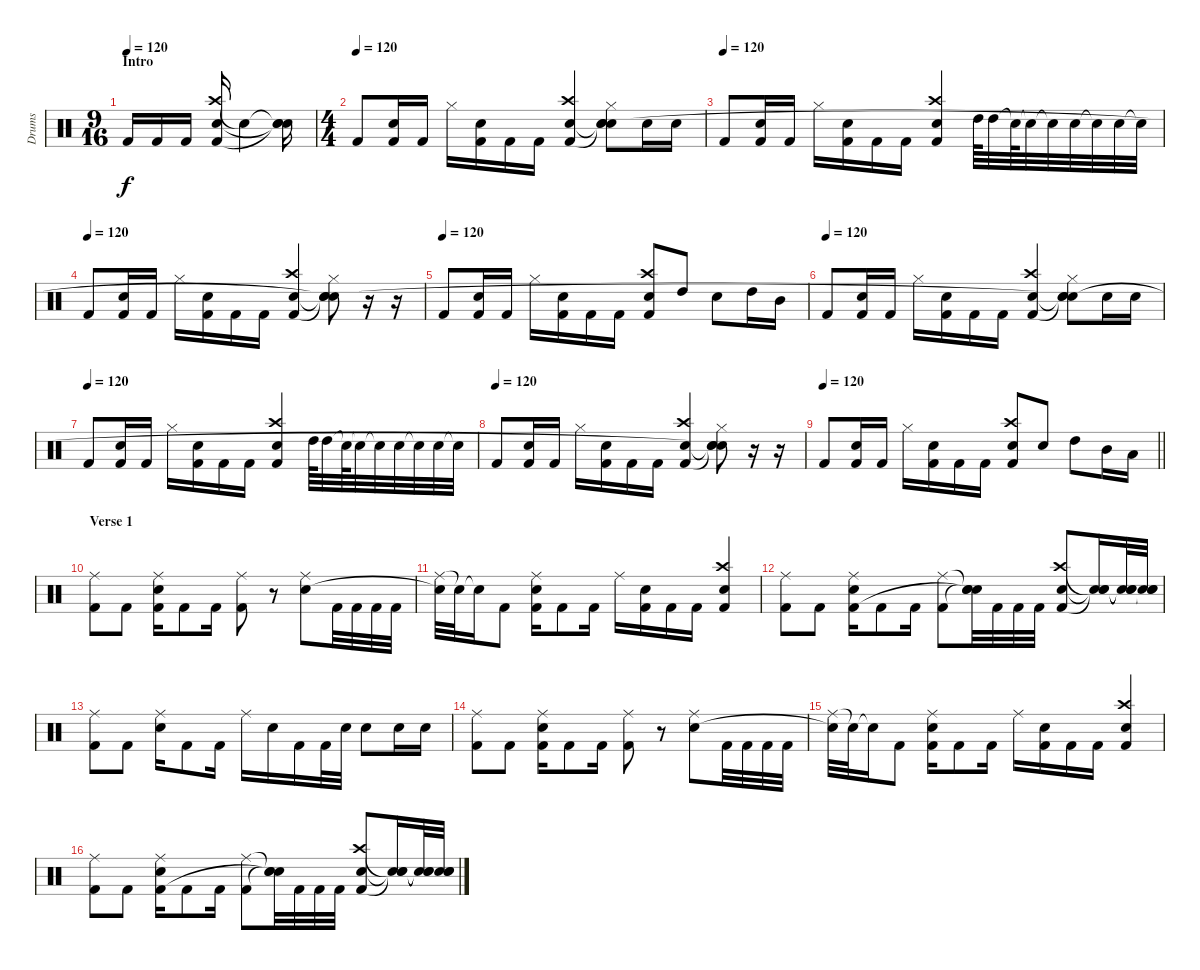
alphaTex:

\track ("Drums" "Drums") {instrument percussion}
\staff {score}
\articulation defaults
\ts (9 16)
\section ("" "Intro")
\tempo 120
\tempo 170
\tempo 120
\clef neutral
\ks c "Kick (hit) 2".16{dy f} "Kick (hit) 2".16 "Kick (hit) 2".16
("Crash high (hit)" "Electric Snare (hit)" "Kick (hit) 2").16 "Snare (hit)"{t}.4 ("Snare (hit)"{t} "Snare (hit)"{t} "Snare (hit)"{t}).16 |
\ts (4 4)
\tempo (120)
"Kick (hit) 2".8 ("Electric Snare (hit)" "Kick (hit) 2").16 "Kick (hit) 2".16 "Hi-Hat (closed)".16 ("Electric Snare (hit)" "Kick (hit) 2").16 "Kick (hit) 2".16 "Kick (hit) 2".16 ("Crash high (hit)" "Electric Snare (hit)" "Kick (hit) 2").4 ("Hi-Hat (closed)" "Snare (hit)"{t} "Snare (hit)"{t} "Snare (hit)").8 "Electric Snare (hit)".16 "Electric Snare (hit)".16 |
\tempo (120)
"Kick (hit) 2".8 ("Electric Snare (hit)" "Kick (hit) 2").16 "Kick (hit) 2".16 "Hi-Hat (closed)".16 ("Electric Snare (hit)" "Kick (hit) 2").16 "Kick (hit) 2".16 "Kick (hit) 2".16 ("Crash high (hit)" "Electric Snare (hit)" "Kick (hit) 2").4 "High Tom (hit)".64 "High Tom (hit)".32 "Snare (hit)"{t}.64 "Snare (hit)"{t}.32 "Snare (hit)"{t}.32 "Electric Snare (hit)".32 "Snare (hit)"{t}.32 "Electric Snare (hit)".32 "Snare (hit)"{t}.32 |
\tempo (120)
"Kick (hit) 2".8 ("Electric Snare (hit)" "Kick (hit) 2").16 "Kick (hit) 2".16 "Hi-Hat (closed)".16 ("Electric Snare (hit)" "Kick (hit) 2").16 "Kick (hit) 2".16 "Kick (hit) 2".16 ("Crash high (hit)" "Electric Snare (hit)" "Kick (hit) 2").4 ("Hi-Hat (closed)" "Snare (hit)"{t} "Snare (hit)"{t} "Snare (hit)"{t}).8 r.16 r.16 |
\tempo (120)
"Kick (hit) 2".8 ("Electric Snare (hit)" "Kick (hit) 2").16 "Kick (hit) 2".16 "Hi-Hat (closed)".16 ("Electric Snare (hit)" "Kick (hit) 2").16 "Kick (hit) 2".16 "Kick (hit) 2".16 ("Crash high (hit)" "Electric Snare (hit)" "Kick (hit) 2").8 "High Tom (hit)".8 "Electric Snare (hit)".8 "High Tom (hit)".16 "Mid Tom (hit)".16 |
\tempo (120)
"Kick (hit) 2".8 ("Electric Snare (hit)" "Kick (hit) 2").16 "Kick (hit) 2".16 "Hi-Hat (closed)".16 ("Electric Snare (hit)" "Kick (hit) 2").16 "Kick (hit) 2".16 "Kick (hit) 2".16 ("Crash high (hit)" "Electric Snare (hit)" "Kick (hit) 2").4 ("Hi-Hat (closed)" "Snare (hit)"{t} "Snare (hit)"{t} "Snare (hit)"{t}).8 "Electric Snare (hit)".16 "Electric Snare (hit)".16 |
\tempo (120)
"Kick (hit) 2".8 ("Electric Snare (hit)" "Kick (hit) 2").16 "Kick (hit) 2".16 "Hi-Hat (closed)".16 ("Electric Snare (hit)" "Kick (hit) 2").16 "Kick (hit) 2".16 "Kick (hit) 2".16 ("Crash high (hit)" "Electric Snare (hit)" "Kick (hit) 2").4 "High Tom (hit)".64 "High Tom (hit)".32 "Snare (hit)"{t}.64 "Snare (hit)"{t}.32 "Snare (hit)"{t}.32 "Electric Snare (hit)".32 "Snare (hit)"{t}.32 "Electric Snare (hit)".32 "Snare (hit)"{t}.32 |
\tempo (120)
"Kick (hit) 2".8 ("Electric Snare (hit)" "Kick (hit) 2").16 "Kick (hit) 2".16 "Hi-Hat (closed)".16 ("Electric Snare (hit)" "Kick (hit) 2").16 "Kick (hit) 2".16 "Kick (hit) 2".16 ("Crash high (hit)" "Electric Snare (hit)" "Kick (hit) 2").4 ("Hi-Hat (closed)" "Snare (hit)"{t} "Snare (hit)"{t} "Snare (hit)"{t}).8 r.16 r.16 |
\tempo 120
\barLineRight lightlight "Kick (hit) 2".8
("Electric Snare (hit)" "Kick (hit) 2").16 "Kick (hit) 2".16 "Hi-Hat (closed)".16 ("Electric Snare (hit)" "Kick (hit) 2").16 "Kick (hit) 2".16 "Kick (hit) 2".16 ("Crash high (hit)" "Electric Snare (hit)" "Kick (hit) 2").8 "Electric Snare (hit)".8 "High Tom (hit)".8 "Mid Tom (hit)".16 "Low Tom (hit)".16 |
\section ("" "Verse 1")
("Ride (middle)" "Kick (hit) 2").8 "Kick (hit) 2".8 ("Ride (middle)" "Electric Snare (hit)" "Kick (hit) 2").16 "Kick (hit) 2".8 "Kick (hit) 2".16 ("Ride (middle)" "Kick (hit) 2").8 r.8 ("Ride (middle)" "Electric Snare (hit)").8 "Kick (hit) 2".32 "Kick (hit) 2".32 "Kick (hit) 2".32 "Kick (hit) 2".32 |
("Ride (middle)" "Snare (hit)"{t}).32 "Snare (hit)"{t}.32 "Snare (hit)"{t}.16 "Kick (hit) 2".8 ("Ride (middle)" "Electric Snare (hit)" "Kick (hit) 2").16 "Kick (hit) 2".8 "Kick (hit) 2".16 "Ride (middle)".16 ("Electric Snare (hit)" "Kick (hit) 2").16 "Kick (hit) 2".16 "Kick (hit) 2".16 ("Crash high (hit)" "Electric Snare (hit)" "Kick (hit) 2").4 |
("Ride (middle)" "Kick (hit) 2").8 "Kick (hit) 2".8 ("Ride (middle)" "Electric Snare (hit)" "Kick (hit) 2").16 "Kick (hit) 2".8 "Kick (hit) 2".16 ("Ride (middle)" "Kick (hit) 2").8 ("Snare (hit)"{t} "Snare (hit)"{t} "Snare (hit)"{t}).32 "Kick (hit) 2".32 "Kick (hit) 2".32 "Kick (hit) 2".32 ("Crash high (hit)" "Electric Snare (hit)" "Kick (hit) 2").8 ("Snare (hit)"{t} "Snare (hit)"{t} "Snare (hit)"{t}).16 ("Snare (hit)"{t} "Snare (hit)"{t} "Snare (hit)"{t}).32 ("Snare (hit)"{t} "Snare (hit)"{t} "Snare (hit)"{t}).32 |
("Ride (middle)" "Kick (hit) 2").8 "Kick (hit) 2".8 ("Ride (middle)" "Electric Snare (hit)").16 "Kick (hit) 2".8 "Kick (hit) 2".16 "Ride (middle)".16 "Electric Snare (hit)".16 "Kick (hit) 2".16 "Kick (hit) 2".32 "Electric Snare (hit)".32 "Electric Snare (hit)".8 "Electric Snare (hit)".16 "Electric Snare (hit)".16 |
("Ride (middle)" "Kick (hit) 2").8 "Kick (hit) 2".8 ("Ride (middle)" "Electric Snare (hit)" "Kick (hit) 2").16 "Kick (hit) 2".8 "Kick (hit) 2".16 ("Ride (middle)" "Kick (hit) 2").8 r.8 ("Ride (middle)" "Electric Snare (hit)").8 "Kick (hit) 2".32 "Kick (hit) 2".32 "Kick (hit) 2".32 "Kick (hit) 2".32 |
("Ride (middle)" "Snare (hit)"{t}).32 "Snare (hit)"{t}.32 "Snare (hit)"{t}.16 "Kick (hit) 2".8 ("Ride (middle)" "Electric Snare (hit)" "Kick (hit) 2").16 "Kick (hit) 2".8 "Kick (hit) 2".16 "Ride (middle)".16 ("Electric Snare (hit)" "Kick (hit) 2").16 "Kick (hit) 2".16 "Kick (hit) 2".16 ("Crash high (hit)" "Electric Snare (hit)" "Kick (hit) 2").4 |
("Ride (middle)" "Kick (hit) 2").8 "Kick (hit) 2".8 ("Ride (middle)" "Electric Snare (hit)" "Kick (hit) 2").16 "Kick (hit) 2".8 "Kick (hit) 2".16 ("Ride (middle)" "Kick (hit) 2").8 ("Snare (hit)"{t} "Snare (hit)"{t} "Snare (hit)"{t}).32 "Kick (hit) 2".32 "Kick (hit) 2".32 "Kick (hit) 2".32 ("Crash high (hit)" "Electric Snare (hit)" "Kick (hit) 2").8 ("Snare (hit)"{t} "Snare (hit)"{t} "Snare (hit)"{t}).16 ("Snare (hit)"{t} "Snare (hit)"{t} "Snare (hit)"{t}).32 ("Snare (hit)"{t} "Snare (hit)"{t} "Snare (hit)"{t}).32
